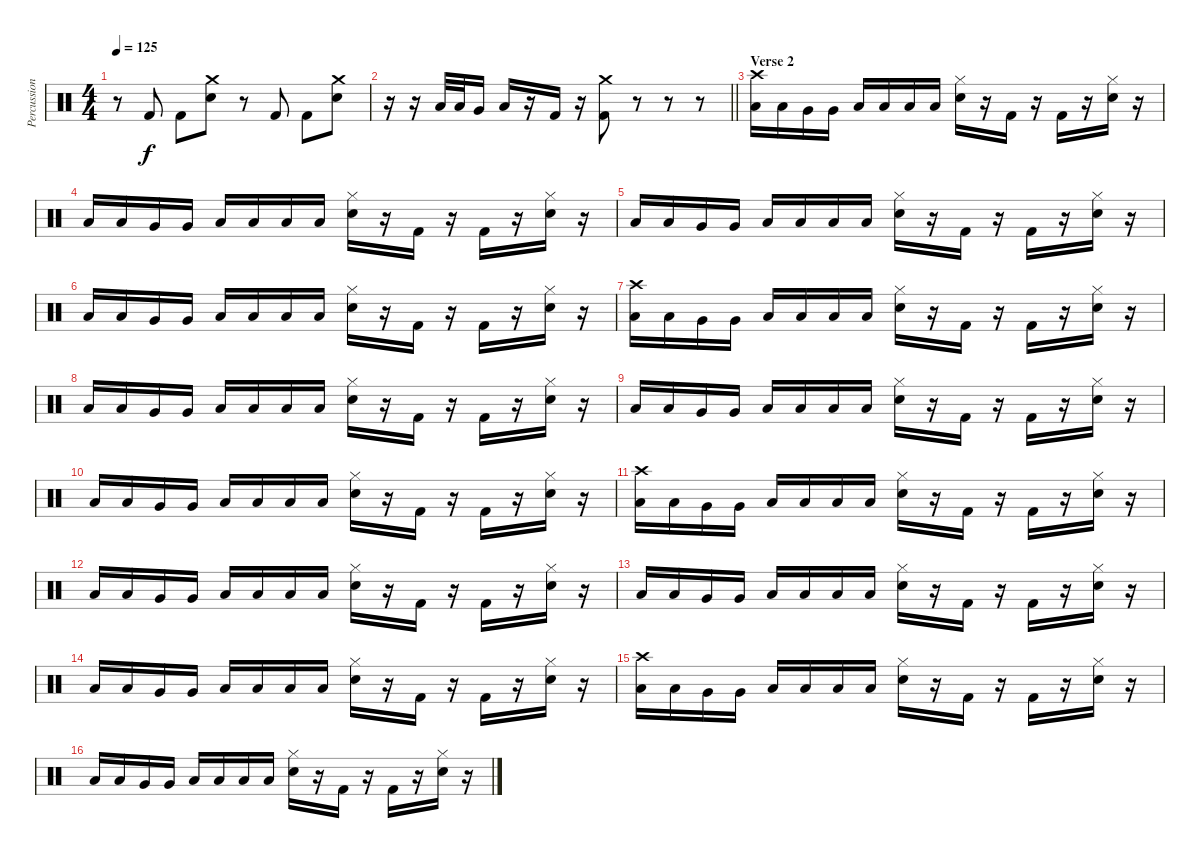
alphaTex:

\track ("Percussion" "Percussion") {instrument percussion}
\staff {score}
\articulation defaults
\ts (4 4)
\tempo 125
\clef neutral
\ks c
r.8{dy f} "Kick (hit) 2".8 "Kick (hit) 2".8 ("Crash medium (hit)" "Electric Snare (hit)").8 r.8 "Kick (hit) 2".8 "Kick (hit) 2".8 ("Crash medium (hit)" "Electric Snare (hit)").8 |
\barLineRight lightlight
r.16 r.16 "Low Tom (hit)".32 "Low Tom (hit)".32 "Very Low Tom (hit)".16 "Low Tom (hit)".16 r.16 "Kick (hit) 2".16 r.16 ("Crash medium (hit)" "Kick (hit) 2").8 r.8 r.8 r.8 |
\section ("" "Verse 2")
("Crash high (hit)" "Low Tom (hit)").16 "Low Tom (hit)".16 "Very Low Tom (hit)".16 "Very Low Tom (hit)".16 "Low Floor Tom (hit)".16 "Low Floor Tom (hit)".16 "Low Tom (hit)".16 "Low Tom (hit)".16 ("Hi-Hat (closed)" "Electric Snare (hit)").16 r.16 "Kick (hit) 2".16 r.16 "Kick (hit) 2".16 r.16 ("Hi-Hat (closed)" "Electric Snare (hit)").16 r.16 |
"Low Tom (hit)".16 "Low Tom (hit)".16 "Very Low Tom (hit)".16 "Very Low Tom (hit)".16 "Low Floor Tom (hit)".16 "Low Floor Tom (hit)".16 "Low Tom (hit)".16 "Low Tom (hit)".16 ("Hi-Hat (closed)" "Electric Snare (hit)").16 r.16 "Kick (hit) 2".16 r.16 "Kick (hit) 2".16 r.16 ("Hi-Hat (closed)" "Electric Snare (hit)").16 r.16 |
"Low Tom (hit)".16 "Low Tom (hit)".16 "Very Low Tom (hit)".16 "Very Low Tom (hit)".16 "Low Floor Tom (hit)".16 "Low Floor Tom (hit)".16 "Low Tom (hit)".16 "Low Tom (hit)".16 ("Hi-Hat (closed)" "Electric Snare (hit)").16 r.16 "Kick (hit) 2".16 r.16 "Kick (hit) 2".16 r.16 ("Hi-Hat (closed)" "Electric Snare (hit)").16 r.16 |
"Low Tom (hit)".16 "Low Tom (hit)".16 "Very Low Tom (hit)".16 "Very Low Tom (hit)".16 "Low Floor Tom (hit)".16 "Low Floor Tom (hit)".16 "Low Tom (hit)".16 "Low Tom (hit)".16 ("Hi-Hat (closed)" "Electric Snare (hit)").16 r.16 "Kick (hit) 2".16 r.16 "Kick (hit) 2".16 r.16 ("Hi-Hat (closed)" "Electric Snare (hit)").16 r.16 |
("Crash high (hit)" "Low Tom (hit)").16 "Low Tom (hit)".16 "Very Low Tom (hit)".16 "Very Low Tom (hit)".16 "Low Floor Tom (hit)".16 "Low Floor Tom (hit)".16 "Low Tom (hit)".16 "Low Tom (hit)".16 ("Hi-Hat (closed)" "Electric Snare (hit)").16 r.16 "Kick (hit) 2".16 r.16 "Kick (hit) 2".16 r.16 ("Hi-Hat (closed)" "Electric Snare (hit)").16 r.16 |
"Low Tom (hit)".16 "Low Tom (hit)".16 "Very Low Tom (hit)".16 "Very Low Tom (hit)".16 "Low Floor Tom (hit)".16 "Low Floor Tom (hit)".16 "Low Tom (hit)".16 "Low Tom (hit)".16 ("Hi-Hat (closed)" "Electric Snare (hit)").16 r.16 "Kick (hit) 2".16 r.16 "Kick (hit) 2".16 r.16 ("Hi-Hat (closed)" "Electric Snare (hit)").16 r.16 |
"Low Tom (hit)".16 "Low Tom (hit)".16 "Very Low Tom (hit)".16 "Very Low Tom (hit)".16 "Low Floor Tom (hit)".16 "Low Floor Tom (hit)".16 "Low Tom (hit)".16 "Low Tom (hit)".16 ("Hi-Hat (closed)" "Electric Snare (hit)").16 r.16 "Kick (hit) 2".16 r.16 "Kick (hit) 2".16 r.16 ("Hi-Hat (closed)" "Electric Snare (hit)").16 r.16 |
"Low Tom (hit)".16 "Low Tom (hit)".16 "Very Low Tom (hit)".16 "Very Low Tom (hit)".16 "Low Floor Tom (hit)".16 "Low Floor Tom (hit)".16 "Low Tom (hit)".16 "Low Tom (hit)".16 ("Hi-Hat (closed)" "Electric Snare (hit)").16 r.16 "Kick (hit) 2".16 r.16 "Kick (hit) 2".16 r.16 ("Hi-Hat (closed)" "Electric Snare (hit)").16 r.16 |
("Crash high (hit)" "Low Tom (hit)").16 "Low Tom (hit)".16 "Very Low Tom (hit)".16 "Very Low Tom (hit)".16 "Low Floor Tom (hit)".16 "Low Floor Tom (hit)".16 "Low Tom (hit)".16 "Low Tom (hit)".16 ("Hi-Hat (closed)" "Electric Snare (hit)").16 r.16 "Kick (hit) 2".16 r.16 "Kick (hit) 2".16 r.16 ("Hi-Hat (closed)" "Electric Snare (hit)").16 r.16 |
"Low Tom (hit)".16 "Low Tom (hit)".16 "Very Low Tom (hit)".16 "Very Low Tom (hit)".16 "Low Floor Tom (hit)".16 "Low Floor Tom (hit)".16 "Low Tom (hit)".16 "Low Tom (hit)".16 ("Hi-Hat (closed)" "Electric Snare (hit)").16 r.16 "Kick (hit) 2".16 r.16 "Kick (hit) 2".16 r.16 ("Hi-Hat (closed)" "Electric Snare (hit)").16 r.16 |
"Low Tom (hit)".16 "Low Tom (hit)".16 "Very Low Tom (hit)".16 "Very Low Tom (hit)".16 "Low Floor Tom (hit)".16 "Low Floor Tom (hit)".16 "Low Tom (hit)".16 "Low Tom (hit)".16 ("Hi-Hat (closed)" "Electric Snare (hit)").16 r.16 "Kick (hit) 2".16 r.16 "Kick (hit) 2".16 r.16 ("Hi-Hat (closed)" "Electric Snare (hit)").16 r.16 |
"Low Tom (hit)".16 "Low Tom (hit)".16 "Very Low Tom (hit)".16 "Very Low Tom (hit)".16 "Low Floor Tom (hit)".16 "Low Floor Tom (hit)".16 "Low Tom (hit)".16 "Low Tom (hit)".16 ("Hi-Hat (closed)" "Electric Snare (hit)").16 r.16 "Kick (hit) 2".16 r.16 "Kick (hit) 2".16 r.16 ("Hi-Hat (closed)" "Electric Snare (hit)").16 r.16 |
("Crash high (hit)" "Low Tom (hit)").16 "Low Tom (hit)".16 "Very Low Tom (hit)".16 "Very Low Tom (hit)".16 "Low Floor Tom (hit)".16 "Low Floor Tom (hit)".16 "Low Tom (hit)".16 "Low Tom (hit)".16 ("Hi-Hat (closed)" "Electric Snare (hit)").16 r.16 "Kick (hit) 2".16 r.16 "Kick (hit) 2".16 r.16 ("Hi-Hat (closed)" "Electric Snare (hit)").16 r.16 |
"Low Tom (hit)".16 "Low Tom (hit)".16 "Very Low Tom (hit)".16 "Very Low Tom (hit)".16 "Low Floor Tom (hit)".16 "Low Floor Tom (hit)".16 "Low Tom (hit)".16 "Low Tom (hit)".16 ("Hi-Hat (closed)" "Electric Snare (hit)").16 r.16 "Kick (hit) 2".16 r.16 "Kick (hit) 2".16 r.16 ("Hi-Hat (closed)" "Electric Snare (hit)").16 r.16
